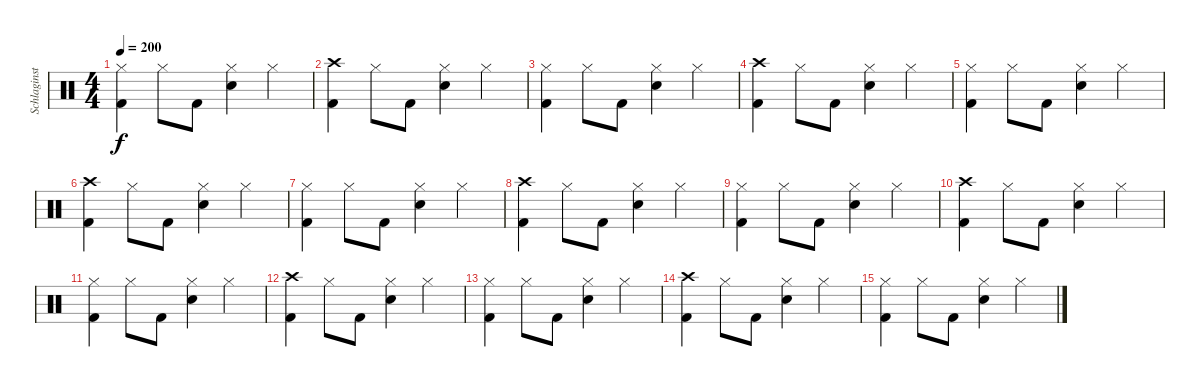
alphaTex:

\track ("Schlaginstrumente - Auswahl" "Schlaginst") {instrument percussion}
\staff {score}
\articulation defaults
\ts (4 4)
\tempo 200
\clef neutral
\ks c
("Hi-Hat (closed)" "Kick (hit) 2").4{dy f} "Hi-Hat (closed)".8 "Kick (hit) 2".8 ("Hi-Hat (closed)" "Electric Snare (hit)").4 "Hi-Hat (closed)".4 |
("Crash high (hit)" "Kick (hit) 2").4 "Hi-Hat (closed)".8 "Kick (hit) 2".8 ("Hi-Hat (closed)" "Electric Snare (hit)").4 "Hi-Hat (closed)".4 |
("Hi-Hat (closed)" "Kick (hit) 2").4 "Hi-Hat (closed)".8 "Kick (hit) 2".8 ("Hi-Hat (closed)" "Electric Snare (hit)").4 "Hi-Hat (closed)".4 |
("Crash high (hit)" "Kick (hit) 2").4 "Hi-Hat (closed)".8 "Kick (hit) 2".8 ("Hi-Hat (closed)" "Electric Snare (hit)").4 "Hi-Hat (closed)".4 |
("Hi-Hat (closed)" "Kick (hit) 2").4 "Hi-Hat (closed)".8 "Kick (hit) 2".8 ("Hi-Hat (closed)" "Electric Snare (hit)").4 "Hi-Hat (closed)".4 |
("Crash high (hit)" "Kick (hit) 2").4 "Hi-Hat (closed)".8 "Kick (hit) 2".8 ("Hi-Hat (closed)" "Electric Snare (hit)").4 "Hi-Hat (closed)".4 |
("Hi-Hat (closed)" "Kick (hit) 2").4 "Hi-Hat (closed)".8 "Kick (hit) 2".8 ("Hi-Hat (closed)" "Electric Snare (hit)").4 "Hi-Hat (closed)".4 |
("Crash high (hit)" "Kick (hit) 2").4 "Hi-Hat (closed)".8 "Kick (hit) 2".8 ("Hi-Hat (closed)" "Electric Snare (hit)").4 "Hi-Hat (closed)".4 |
("Hi-Hat (closed)" "Kick (hit) 2").4 "Hi-Hat (closed)".8 "Kick (hit) 2".8 ("Hi-Hat (closed)" "Electric Snare (hit)").4 "Hi-Hat (closed)".4 |
("Crash high (hit)" "Kick (hit) 2").4 "Hi-Hat (closed)".8 "Kick (hit) 2".8 ("Hi-Hat (closed)" "Electric Snare (hit)").4 "Hi-Hat (closed)".4 |
("Hi-Hat (closed)" "Kick (hit) 2").4 "Hi-Hat (closed)".8 "Kick (hit) 2".8 ("Hi-Hat (closed)" "Electric Snare (hit)").4 "Hi-Hat (closed)".4 |
("Crash high (hit)" "Kick (hit) 2").4 "Hi-Hat (closed)".8 "Kick (hit) 2".8 ("Hi-Hat (closed)" "Electric Snare (hit)").4 "Hi-Hat (closed)".4 |
("Hi-Hat (closed)" "Kick (hit) 2").4 "Hi-Hat (closed)".8 "Kick (hit) 2".8 ("Hi-Hat (closed)" "Electric Snare (hit)").4 "Hi-Hat (closed)".4 |
("Crash high (hit)" "Kick (hit) 2").4 "Hi-Hat (closed)".8 "Kick (hit) 2".8 ("Hi-Hat (closed)" "Electric Snare (hit)").4 "Hi-Hat (closed)".4 |
("Hi-Hat (closed)" "Kick (hit) 2").4 "Hi-Hat (closed)".8 "Kick (hit) 2".8 ("Hi-Hat (closed)" "Electric Snare (hit)").4 "Hi-Hat (closed)".4
